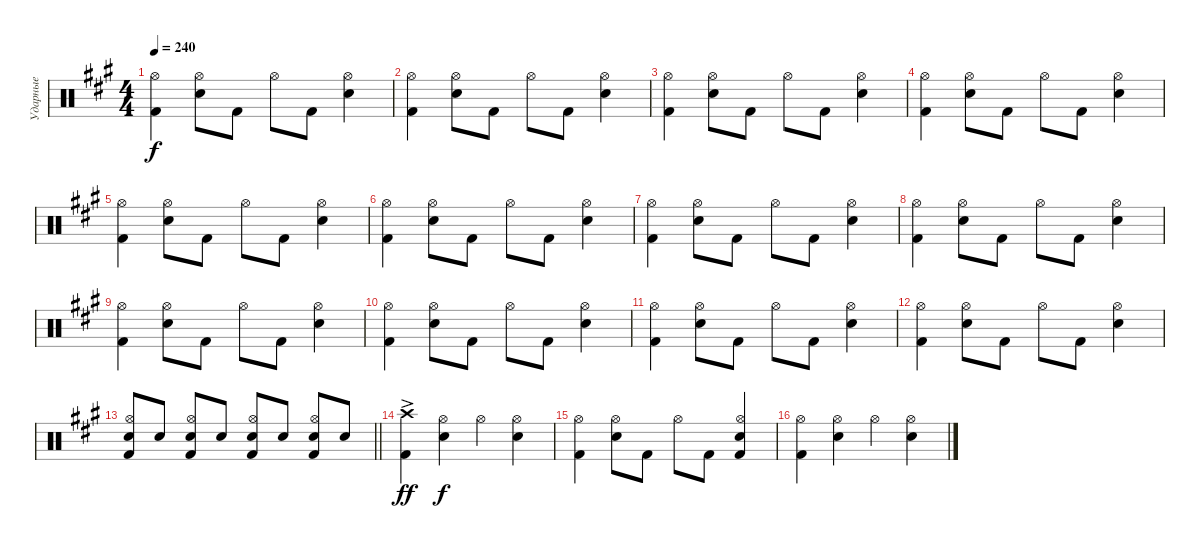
\track ("Ударные" "Ударные") {instrument percussion}
\staff {score}
\articulation defaults
\ts (4 4)
\tempo 240
\clef neutral
\ks a
("Kick (hit) 2" "Hi-Hat (open)").4{dy f} ("Snare (hit) 2" "Hi-Hat (open)").8 "Kick (hit) 2".8 "Hi-Hat (open)".8 "Kick (hit) 2".8 ("Snare (hit) 2" "Hi-Hat (open)").4 |
("Kick (hit) 2" "Hi-Hat (open)").4 ("Snare (hit) 2" "Hi-Hat (open)").8 "Kick (hit) 2".8 "Hi-Hat (open)".8 "Kick (hit) 2".8 ("Snare (hit) 2" "Hi-Hat (open)").4 |
("Kick (hit) 2" "Hi-Hat (open)").4 ("Snare (hit) 2" "Hi-Hat (open)").8 "Kick (hit) 2".8 "Hi-Hat (open)".8 "Kick (hit) 2".8 ("Snare (hit) 2" "Hi-Hat (open)").4 |
("Kick (hit) 2" "Hi-Hat (open)").4 ("Snare (hit) 2" "Hi-Hat (open)").8 "Kick (hit) 2".8 "Hi-Hat (open)".8 "Kick (hit) 2".8 ("Snare (hit) 2" "Hi-Hat (open)").4 |
("Kick (hit) 2" "Hi-Hat (open)").4 ("Snare (hit) 2" "Hi-Hat (open)").8 "Kick (hit) 2".8 "Hi-Hat (open)".8 "Kick (hit) 2".8 ("Snare (hit) 2" "Hi-Hat (open)").4 |
("Kick (hit) 2" "Hi-Hat (open)").4 ("Snare (hit) 2" "Hi-Hat (open)").8 "Kick (hit) 2".8 "Hi-Hat (open)".8 "Kick (hit) 2".8 ("Snare (hit) 2" "Hi-Hat (open)").4 |
("Kick (hit) 2" "Hi-Hat (open)").4 ("Snare (hit) 2" "Hi-Hat (open)").8 "Kick (hit) 2".8 "Hi-Hat (open)".8 "Kick (hit) 2".8 ("Snare (hit) 2" "Hi-Hat (open)").4 |
("Kick (hit) 2" "Hi-Hat (open)").4 ("Snare (hit) 2" "Hi-Hat (open)").8 "Kick (hit) 2".8 "Hi-Hat (open)".8 "Kick (hit) 2".8 ("Snare (hit) 2" "Hi-Hat (open)").4 |
("Kick (hit) 2" "Hi-Hat (open)").4 ("Snare (hit) 2" "Hi-Hat (open)").8 "Kick (hit) 2".8 "Hi-Hat (open)".8 "Kick (hit) 2".8 ("Snare (hit) 2" "Hi-Hat (open)").4 |
("Kick (hit) 2" "Hi-Hat (open)").4 ("Snare (hit) 2" "Hi-Hat (open)").8 "Kick (hit) 2".8 "Hi-Hat (open)".8 "Kick (hit) 2".8 ("Snare (hit) 2" "Hi-Hat (open)").4 |
("Kick (hit) 2" "Hi-Hat (open)").4 ("Snare (hit) 2" "Hi-Hat (open)").8 "Kick (hit) 2".8 "Hi-Hat (open)".8 "Kick (hit) 2".8 ("Snare (hit) 2" "Hi-Hat (open)").4 |
("Kick (hit) 2" "Hi-Hat (open)").4 ("Snare (hit) 2" "Hi-Hat (open)").8 "Kick (hit) 2".8 "Hi-Hat (open)".8 "Kick (hit) 2".8 ("Snare (hit) 2" "Hi-Hat (open)").4 |
\barLineRight lightlight
("Kick (hit) 2" "Snare (hit) 2" "Hi-Hat (open)").8 "Snare (hit) 2".8 ("Kick (hit) 2" "Snare (hit) 2" "Hi-Hat (open)").8 "Snare (hit) 2".8 ("Kick (hit) 2" "Snare (hit) 2" "Hi-Hat (open)").8 "Snare (hit) 2".8 ("Kick (hit) 2" "Snare (hit) 2" "Hi-Hat (open)").8 "Snare (hit) 2".8 |
("Kick (hit) 2" "Crash high (hit)"{ac}).4{dy ff} ("Snare (hit) 2" "Hi-Hat (open)").4{dy f} "Hi-Hat (open)".4 ("Snare (hit) 2" "Hi-Hat (open)").4 |
("Kick (hit) 2" "Hi-Hat (open)").4 ("Snare (hit) 2" "Hi-Hat (open)").8 "Kick (hit) 2".8 "Hi-Hat (open)".8 "Kick (hit) 2".8 ("Kick (hit) 2" "Snare (hit) 2" "Hi-Hat (open)").4 |
("Kick (hit) 2" "Hi-Hat (open)").4 ("Snare (hit) 2" "Hi-Hat (open)").4 "Hi-Hat (open)".4 ("Snare (hit) 2" "Hi-Hat (open)").4
